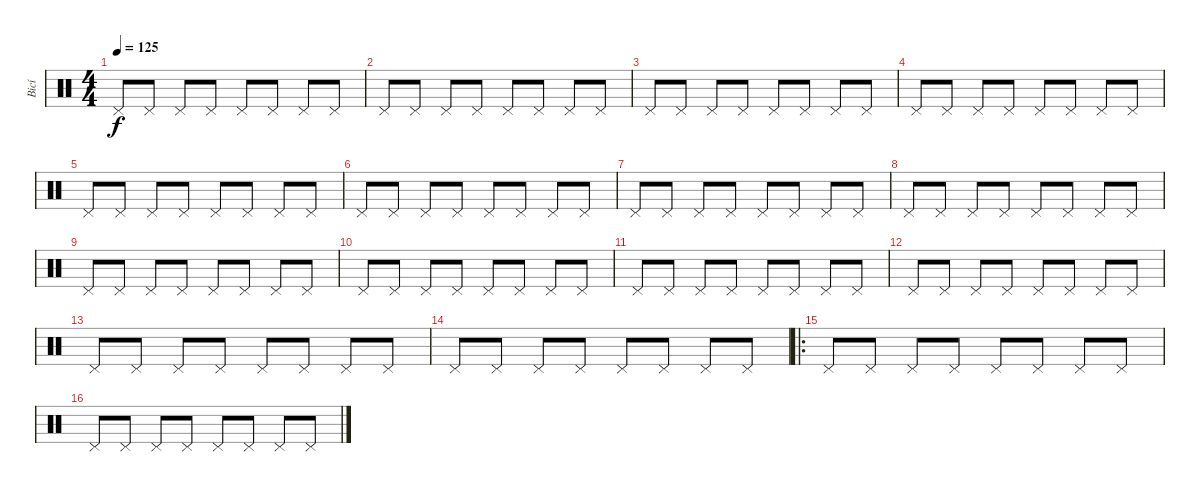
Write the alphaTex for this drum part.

\track ("Bicí" "Bicí") {instrument percussion}
\staff {score}
\articulation defaults
\ts (4 4)
\tempo 125
\clef neutral
\ks c "Pedal Hi-Hat (hit)".8{dy f} "Pedal Hi-Hat (hit)".8 "Pedal Hi-Hat (hit)".8 "Pedal Hi-Hat (hit)".8 "Pedal Hi-Hat (hit)".8 "Pedal Hi-Hat (hit)".8 "Pedal Hi-Hat (hit)".8 "Pedal Hi-Hat (hit)".8
|
"Pedal Hi-Hat (hit)".8 "Pedal Hi-Hat (hit)".8 "Pedal Hi-Hat (hit)".8 "Pedal Hi-Hat (hit)".8 "Pedal Hi-Hat (hit)".8 "Pedal Hi-Hat (hit)".8 "Pedal Hi-Hat (hit)".8 "Pedal Hi-Hat (hit)".8 |
"Pedal Hi-Hat (hit)".8 "Pedal Hi-Hat (hit)".8 "Pedal Hi-Hat (hit)".8 "Pedal Hi-Hat (hit)".8 "Pedal Hi-Hat (hit)".8 "Pedal Hi-Hat (hit)".8 "Pedal Hi-Hat (hit)".8 "Pedal Hi-Hat (hit)".8 |
"Pedal Hi-Hat (hit)".8 "Pedal Hi-Hat (hit)".8 "Pedal Hi-Hat (hit)".8 "Pedal Hi-Hat (hit)".8 "Pedal Hi-Hat (hit)".8 "Pedal Hi-Hat (hit)".8 "Pedal Hi-Hat (hit)".8 "Pedal Hi-Hat (hit)".8 |
"Pedal Hi-Hat (hit)".8 "Pedal Hi-Hat (hit)".8 "Pedal Hi-Hat (hit)".8 "Pedal Hi-Hat (hit)".8 "Pedal Hi-Hat (hit)".8 "Pedal Hi-Hat (hit)".8 "Pedal Hi-Hat (hit)".8 "Pedal Hi-Hat (hit)".8 |
"Pedal Hi-Hat (hit)".8 "Pedal Hi-Hat (hit)".8 "Pedal Hi-Hat (hit)".8 "Pedal Hi-Hat (hit)".8 "Pedal Hi-Hat (hit)".8 "Pedal Hi-Hat (hit)".8 "Pedal Hi-Hat (hit)".8 "Pedal Hi-Hat (hit)".8 |
"Pedal Hi-Hat (hit)".8 "Pedal Hi-Hat (hit)".8 "Pedal Hi-Hat (hit)".8 "Pedal Hi-Hat (hit)".8 "Pedal Hi-Hat (hit)".8 "Pedal Hi-Hat (hit)".8 "Pedal Hi-Hat (hit)".8 "Pedal Hi-Hat (hit)".8 |
"Pedal Hi-Hat (hit)".8 "Pedal Hi-Hat (hit)".8 "Pedal Hi-Hat (hit)".8 "Pedal Hi-Hat (hit)".8 "Pedal Hi-Hat (hit)".8 "Pedal Hi-Hat (hit)".8 "Pedal Hi-Hat (hit)".8 "Pedal Hi-Hat (hit)".8 |
"Pedal Hi-Hat (hit)".8 "Pedal Hi-Hat (hit)".8 "Pedal Hi-Hat (hit)".8 "Pedal Hi-Hat (hit)".8 "Pedal Hi-Hat (hit)".8 "Pedal Hi-Hat (hit)".8 "Pedal Hi-Hat (hit)".8 "Pedal Hi-Hat (hit)".8 |
"Pedal Hi-Hat (hit)".8 "Pedal Hi-Hat (hit)".8 "Pedal Hi-Hat (hit)".8 "Pedal Hi-Hat (hit)".8 "Pedal Hi-Hat (hit)".8 "Pedal Hi-Hat (hit)".8 "Pedal Hi-Hat (hit)".8 "Pedal Hi-Hat (hit)".8 |
"Pedal Hi-Hat (hit)".8 "Pedal Hi-Hat (hit)".8 "Pedal Hi-Hat (hit)".8 "Pedal Hi-Hat (hit)".8 "Pedal Hi-Hat (hit)".8 "Pedal Hi-Hat (hit)".8 "Pedal Hi-Hat (hit)".8 "Pedal Hi-Hat (hit)".8 |
"Pedal Hi-Hat (hit)".8 "Pedal Hi-Hat (hit)".8 "Pedal Hi-Hat (hit)".8 "Pedal Hi-Hat (hit)".8 "Pedal Hi-Hat (hit)".8 "Pedal Hi-Hat (hit)".8 "Pedal Hi-Hat (hit)".8 "Pedal Hi-Hat (hit)".8 |
"Pedal Hi-Hat (hit)".8 "Pedal Hi-Hat (hit)".8 "Pedal Hi-Hat (hit)".8 "Pedal Hi-Hat (hit)".8 "Pedal Hi-Hat (hit)".8 "Pedal Hi-Hat (hit)".8 "Pedal Hi-Hat (hit)".8 "Pedal Hi-Hat (hit)".8 |
"Pedal Hi-Hat (hit)".8 "Pedal Hi-Hat (hit)".8 "Pedal Hi-Hat (hit)".8 "Pedal Hi-Hat (hit)".8 "Pedal Hi-Hat (hit)".8 "Pedal Hi-Hat (hit)".8 "Pedal Hi-Hat (hit)".8 "Pedal Hi-Hat (hit)".8 |
\ro "Pedal Hi-Hat (hit)".8 "Pedal Hi-Hat (hit)".8 "Pedal Hi-Hat (hit)".8 "Pedal Hi-Hat (hit)".8 "Pedal Hi-Hat (hit)".8 "Pedal Hi-Hat (hit)".8 "Pedal Hi-Hat (hit)".8 "Pedal Hi-Hat (hit)".8
|
"Pedal Hi-Hat (hit)".8 "Pedal Hi-Hat (hit)".8 "Pedal Hi-Hat (hit)".8 "Pedal Hi-Hat (hit)".8 "Pedal Hi-Hat (hit)".8 "Pedal Hi-Hat (hit)".8 "Pedal Hi-Hat (hit)".8 "Pedal Hi-Hat (hit)".8
